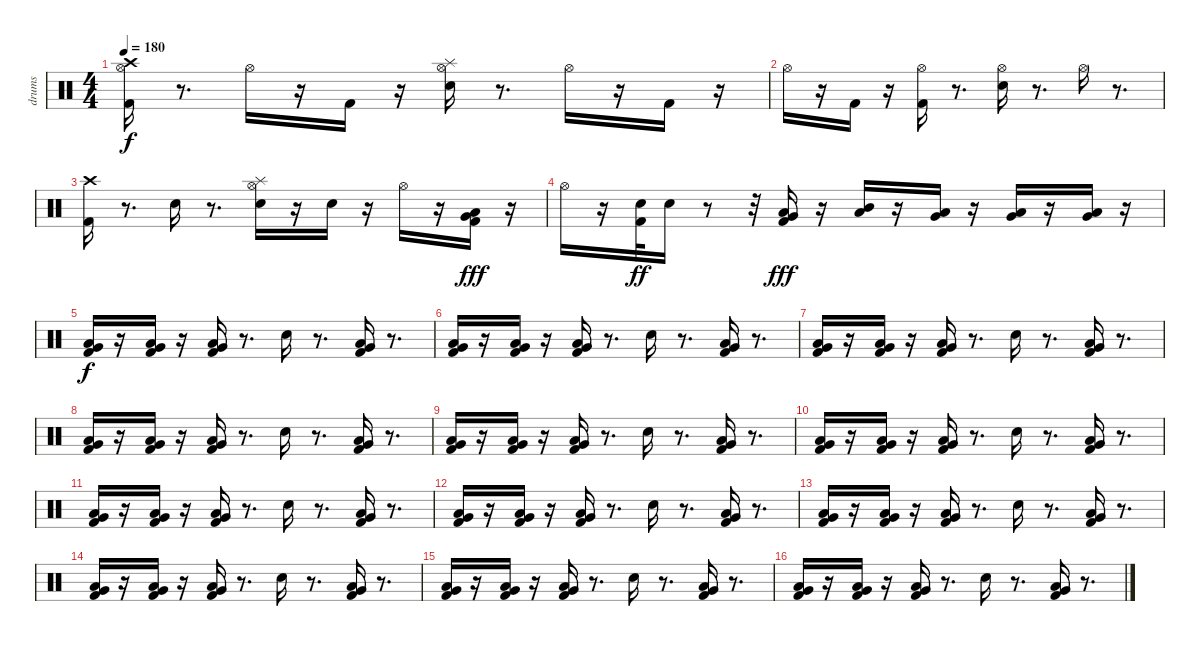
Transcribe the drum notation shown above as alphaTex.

\track ("drums" "drums") {instrument percussion}
\staff {score}
\articulation defaults
\ts (4 4)
\tempo 180
\clef neutral
\ks c
("Crash high (hit)" "Kick (hit) 2" "Hi-Hat (open)").16{dy f} r.8{d} "Hi-Hat (open)".16 r.16 "Kick (hit) 2".16 r.16 ("Splash (hit)" "Electric Snare (hit)" "Hi-Hat (open)").16 r.8{d} "Hi-Hat (open)".16 r.16 "Kick (hit) 2".16 r.16 |
"Hi-Hat (open)".16 r.16 "Kick (hit) 2".16 r.16 ("Hi-Hat (open)" "Kick (hit) 2").16 r.8{d} ("Hi-Hat (open)" "Electric Snare (hit)").16 r.8{d} "Hi-Hat (open)".16 r.8{d} |
("Crash high (hit)" "Kick (hit) 2").16 r.8{d} "Electric Snare (hit)".16 r.8{d} ("Splash (hit)" "Hi-Hat (open)" "Electric Snare (hit)").16 r.16 "Electric Snare (hit)".16 r.16 "Hi-Hat (open)".16 r.16 ("Very Low Tom (hit)" "Low Floor Tom (hit)" "Kick (hit) 2").16{dy fff} r.16 |
"Hi-Hat (open)".16 r.16 ("Electric Snare (hit)" "Kick (hit) 2").32{dy ff} "Electric Snare (hit)".16 r.8 r.32 ("Low Tom (hit)" "Very Low Tom (hit)" "Kick (hit) 2").16{dy fff} r.16 ("Low Tom (hit)" "Mid Tom (hit)").16 r.16 ("Very Low Tom (hit)" "Low Tom (hit)").16 r.16 ("Low Tom (hit)" "Very Low Tom (hit)").16 r.16 ("Very Low Tom (hit)" "Low Floor Tom (hit)").16 r.16 |
("Low Floor Tom (hit)" "Very Low Tom (hit)" "Kick (hit) 2").16{dy f} r.16 ("Very Low Tom (hit)" "Low Tom (hit)" "Kick (hit) 2").16 r.16 ("Low Floor Tom (hit)" "Very Low Tom (hit)" "Kick (hit) 2").16 r.8{d} "Electric Snare (hit)".16 r.8{d} ("Very Low Tom (hit)" "Low Floor Tom (hit)" "Kick (hit) 2").16 r.8{d} |
("Kick (hit) 2" "Low Floor Tom (hit)" "Very Low Tom (hit)").16 r.16 ("Kick (hit) 2" "Very Low Tom (hit)" "Low Tom (hit)").16 r.16 ("Kick (hit) 2" "Low Floor Tom (hit)" "Very Low Tom (hit)").16 r.8{d} "Electric Snare (hit)".16 r.8{d} ("Kick (hit) 2" "Very Low Tom (hit)" "Low Floor Tom (hit)").16 r.8{d} |
("Very Low Tom (hit)" "Low Floor Tom (hit)" "Kick (hit) 2").16 r.16 ("Low Tom (hit)" "Very Low Tom (hit)" "Kick (hit) 2").16 r.16 ("Low Floor Tom (hit)" "Very Low Tom (hit)" "Kick (hit) 2").16 r.8{d} "Electric Snare (hit)".16 r.8{d} ("Kick (hit) 2" "Very Low Tom (hit)" "Low Floor Tom (hit)").16 r.8{d} |
("Kick (hit) 2" "Low Floor Tom (hit)" "Very Low Tom (hit)").16 r.16 ("Kick (hit) 2" "Very Low Tom (hit)" "Low Tom (hit)").16 r.16 ("Kick (hit) 2" "Low Floor Tom (hit)" "Very Low Tom (hit)").16 r.8{d} "Electric Snare (hit)".16 r.8{d} ("Kick (hit) 2" "Very Low Tom (hit)" "Low Floor Tom (hit)").16 r.8{d} |
("Very Low Tom (hit)" "Low Floor Tom (hit)" "Kick (hit) 2").16 r.16 ("Low Tom (hit)" "Very Low Tom (hit)" "Kick (hit) 2").16 r.16 ("Low Floor Tom (hit)" "Very Low Tom (hit)" "Kick (hit) 2").16 r.8{d} "Electric Snare (hit)".16 r.8{d} ("Kick (hit) 2" "Very Low Tom (hit)" "Low Floor Tom (hit)").16 r.8{d} |
("Kick (hit) 2" "Low Floor Tom (hit)" "Very Low Tom (hit)").16 r.16 ("Kick (hit) 2" "Very Low Tom (hit)" "Low Tom (hit)").16 r.16 ("Kick (hit) 2" "Low Floor Tom (hit)" "Very Low Tom (hit)").16 r.8{d} "Electric Snare (hit)".16 r.8{d} ("Kick (hit) 2" "Very Low Tom (hit)" "Low Floor Tom (hit)").16 r.8{d} |
("Very Low Tom (hit)" "Low Floor Tom (hit)" "Kick (hit) 2").16 r.16 ("Low Tom (hit)" "Very Low Tom (hit)" "Kick (hit) 2").16 r.16 ("Low Floor Tom (hit)" "Very Low Tom (hit)" "Kick (hit) 2").16 r.8{d} "Electric Snare (hit)".16 r.8{d} ("Kick (hit) 2" "Very Low Tom (hit)" "Low Floor Tom (hit)").16 r.8{d} |
("Kick (hit) 2" "Low Floor Tom (hit)" "Very Low Tom (hit)").16 r.16 ("Kick (hit) 2" "Very Low Tom (hit)" "Low Tom (hit)").16 r.16 ("Kick (hit) 2" "Low Floor Tom (hit)" "Very Low Tom (hit)").16 r.8{d} "Electric Snare (hit)".16 r.8{d} ("Kick (hit) 2" "Very Low Tom (hit)" "Low Floor Tom (hit)").16 r.8{d} |
("Very Low Tom (hit)" "Low Floor Tom (hit)" "Kick (hit) 2").16 r.16 ("Low Tom (hit)" "Very Low Tom (hit)" "Kick (hit) 2").16 r.16 ("Low Floor Tom (hit)" "Very Low Tom (hit)" "Kick (hit) 2").16 r.8{d} "Electric Snare (hit)".16 r.8{d} ("Kick (hit) 2" "Very Low Tom (hit)" "Low Floor Tom (hit)").16 r.8{d} |
("Kick (hit) 2" "Low Floor Tom (hit)" "Very Low Tom (hit)").16 r.16 ("Kick (hit) 2" "Very Low Tom (hit)" "Low Tom (hit)").16 r.16 ("Kick (hit) 2" "Low Floor Tom (hit)" "Very Low Tom (hit)").16 r.8{d} "Electric Snare (hit)".16 r.8{d} ("Kick (hit) 2" "Very Low Tom (hit)" "Low Floor Tom (hit)").16 r.8{d} |
("Very Low Tom (hit)" "Low Floor Tom (hit)" "Kick (hit) 2").16 r.16 ("Low Tom (hit)" "Very Low Tom (hit)" "Kick (hit) 2").16 r.16 ("Low Floor Tom (hit)" "Very Low Tom (hit)" "Kick (hit) 2").16 r.8{d} "Electric Snare (hit)".16 r.8{d} ("Kick (hit) 2" "Very Low Tom (hit)" "Low Floor Tom (hit)").16 r.8{d} |
("Kick (hit) 2" "Low Floor Tom (hit)" "Very Low Tom (hit)").16 r.16 ("Kick (hit) 2" "Very Low Tom (hit)" "Low Tom (hit)").16 r.16 ("Kick (hit) 2" "Low Floor Tom (hit)" "Very Low Tom (hit)").16 r.8{d} "Electric Snare (hit)".16 r.8{d} ("Kick (hit) 2" "Very Low Tom (hit)" "Low Floor Tom (hit)").16 r.8{d}
